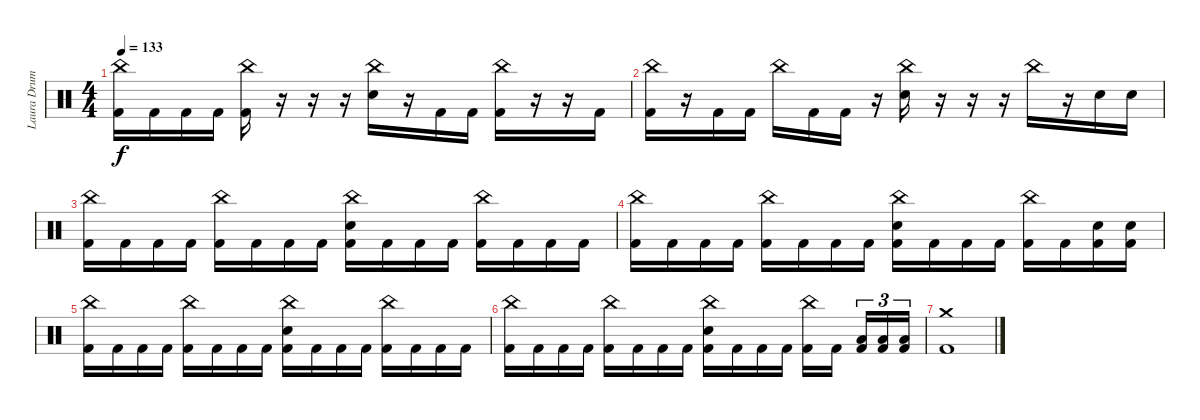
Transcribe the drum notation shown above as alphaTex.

\track ("Laura Drums" "Laura Drum") {instrument percussion}
\staff {score}
\articulation defaults
\ts (4 4)
\tempo 133
\clef neutral
\ks c
("China (hit)" "Kick (hit) 2").16{dy f} "Kick (hit) 2".16 "Kick (hit) 2".16 "Kick (hit) 2".16 ("China (hit)" "Kick (hit) 2").16 r.16 r.16 r.16 ("China (hit)" "Electric Snare (hit)").16 r.16 "Kick (hit) 2".16 "Kick (hit) 2".16 ("China (hit)" "Kick (hit) 2").16 r.16 r.16 "Kick (hit) 2".16 |
("China (hit)" "Kick (hit) 2").16 r.16 "Kick (hit) 2".16 "Kick (hit) 2".16 "China (hit)".16 "Kick (hit) 2".16 "Kick (hit) 2".16 r.16 ("China (hit)" "Electric Snare (hit)").16 r.16 r.16 r.16 "China (hit)".16 r.16 "Electric Snare (hit)".16 "Electric Snare (hit)".16 |
("China (hit)" "Kick (hit) 2").16 "Kick (hit) 2".16 "Kick (hit) 2".16 "Kick (hit) 2".16 ("China (hit)" "Kick (hit) 2").16 "Kick (hit) 2".16 "Kick (hit) 2".16 "Kick (hit) 2".16 ("China (hit)" "Electric Snare (hit)" "Kick (hit) 2").16 "Kick (hit) 2".16 "Kick (hit) 2".16 "Kick (hit) 2".16 ("China (hit)" "Kick (hit) 2").16 "Kick (hit) 2".16 "Kick (hit) 2".16 "Kick (hit) 2".16 |
("China (hit)" "Kick (hit) 2").16 "Kick (hit) 2".16 "Kick (hit) 2".16 "Kick (hit) 2".16 ("China (hit)" "Kick (hit) 2").16 "Kick (hit) 2".16 "Kick (hit) 2".16 "Kick (hit) 2".16 ("China (hit)" "Electric Snare (hit)" "Kick (hit) 2").16 "Kick (hit) 2".16 "Kick (hit) 2".16 "Kick (hit) 2".16 ("China (hit)" "Kick (hit) 2").16 "Kick (hit) 2".16 ("Electric Snare (hit)" "Kick (hit) 2").16 ("Electric Snare (hit)" "Kick (hit) 2").16 |
("China (hit)" "Kick (hit) 2").16 "Kick (hit) 2".16 "Kick (hit) 2".16 "Kick (hit) 2".16 ("China (hit)" "Kick (hit) 2").16 "Kick (hit) 2".16 "Kick (hit) 2".16 "Kick (hit) 2".16 ("China (hit)" "Electric Snare (hit)" "Kick (hit) 2").16 "Kick (hit) 2".16 "Kick (hit) 2".16 "Kick (hit) 2".16 ("China (hit)" "Kick (hit) 2").16 "Kick (hit) 2".16 "Kick (hit) 2".16 "Kick (hit) 2".16 |
("China (hit)" "Kick (hit) 2").16 "Kick (hit) 2".16 "Kick (hit) 2".16 "Kick (hit) 2".16 ("China (hit)" "Kick (hit) 2").16 "Kick (hit) 2".16 "Kick (hit) 2".16 "Kick (hit) 2".16 ("China (hit)" "Electric Snare (hit)" "Kick (hit) 2").16 "Kick (hit) 2".16 "Kick (hit) 2".16 "Kick (hit) 2".16 ("China (hit)" "Kick (hit) 2").16 "Kick (hit) 2".16{beam splitsecondary} ("Low Floor Tom (hit)" "Kick (hit) 2").16{tu (3 2)} ("Low Floor Tom (hit)" "Kick (hit) 2").16{tu (3 2)} ("Low Floor Tom (hit)" "Kick (hit) 2").16{tu (3 2)} |
("Crash medium (hit)" "Kick (hit) 2").1
